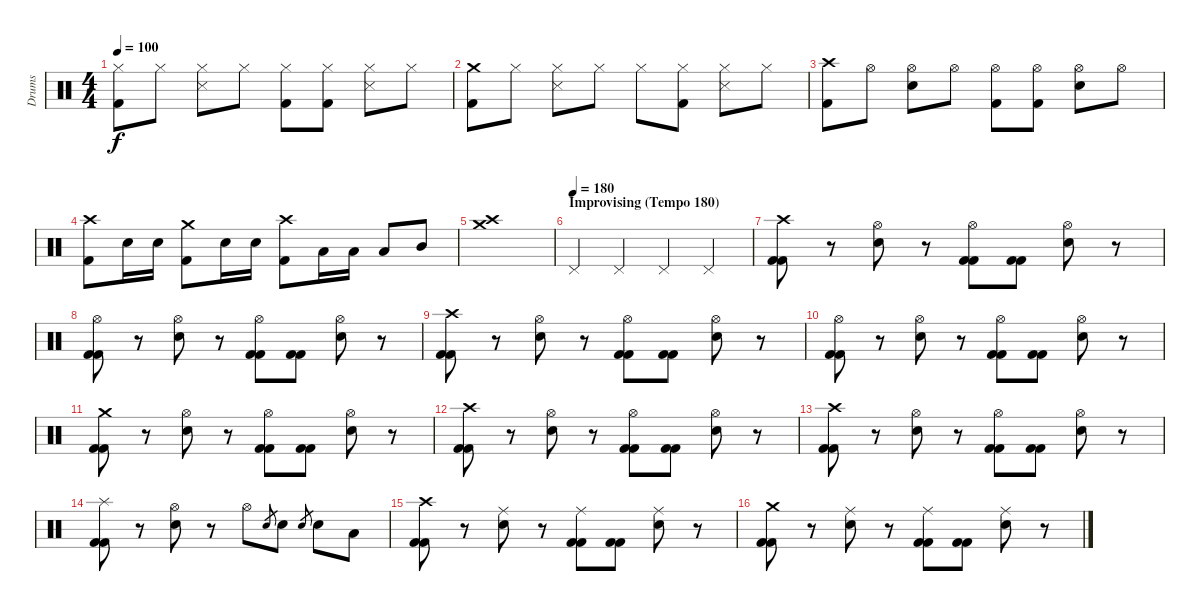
\track ("Drums" "Drums") {instrument percussion}
\staff {score}
\articulation defaults
\ts (4 4)
\tempo 100
\clef neutral
\ks c
("Hi-Hat (closed)" "Kick (hit) 2").8{dy f} "Hi-Hat (closed)".8 ("Hi-Hat (closed)" "Snare (side stick) 3").8 "Hi-Hat (closed)".8 ("Hi-Hat (closed)" "Kick (hit) 2").8 ("Hi-Hat (closed)" "Kick (hit) 2").8 ("Hi-Hat (closed)" "Snare (side stick) 3").8 "Hi-Hat (closed)".8 |
("Crash medium (hit)" "Kick (hit) 2").8 "Hi-Hat (closed)".8 ("Hi-Hat (closed)" "Snare (side stick) 3").8 "Hi-Hat (closed)".8 "Hi-Hat (closed)".8 ("Hi-Hat (closed)" "Kick (hit) 2").8 ("Hi-Hat (closed)" "Snare (side stick) 3").8 "Hi-Hat (closed)".8 |
("Crash high (hit)" "Kick (hit) 2").8 "Hi-Hat (open)".8 ("Hi-Hat (open)" "Snare (hit) 2").8 "Hi-Hat (open)".8 ("Hi-Hat (open)" "Kick (hit) 2").8 ("Hi-Hat (open)" "Kick (hit) 2").8 ("Hi-Hat (open)" "Snare (hit) 2").8 "Hi-Hat (open)".8 |
("Crash high (hit)" "Kick (hit) 2").8 "Snare (hit) 2".16 "Snare (hit) 2".16 ("Crash medium (hit)" "Kick (hit) 2").8 "Snare (hit) 2".16 "Snare (hit) 2".16 ("Crash high (hit)" "Kick (hit) 2").8 "Low Tom (hit)".16 "Low Tom (hit)".16 "Low Tom (hit)".8 "Mid Tom (hit)".8 |
("Crash high (hit)" "Crash medium (hit)").1 |
\section ("" "Improvising (Tempo 180)")
\tempo (180)
"Pedal Hi-Hat (hit)".4 "Pedal Hi-Hat (hit)".4 "Pedal Hi-Hat (hit)".4 "Pedal Hi-Hat (hit)".4 |
("Crash high (hit)" "Kick (hit) 2" "Kick (hit) 2").8 r.8 ("Hi-Hat (open)" "Snare (hit) 2").8 r.8 ("Hi-Hat (open)" "Kick (hit) 2" "Kick (hit) 2").8 ("Kick (hit) 2" "Kick (hit) 2").8 ("Hi-Hat (open)" "Snare (hit) 2").8 r.8 |
("Hi-Hat (open)" "Kick (hit) 2" "Kick (hit) 2").8 r.8 ("Hi-Hat (open)" "Snare (hit) 2").8 r.8 ("Hi-Hat (open)" "Kick (hit) 2" "Kick (hit) 2").8 ("Kick (hit) 2" "Kick (hit) 2").8 ("Hi-Hat (open)" "Snare (hit) 2").8 r.8 |
("Crash high (hit)" "Kick (hit) 2" "Kick (hit) 2").8 r.8 ("Hi-Hat (open)" "Snare (hit) 2").8 r.8 ("Hi-Hat (open)" "Kick (hit) 2" "Kick (hit) 2").8 ("Kick (hit) 2" "Kick (hit) 2").8 ("Hi-Hat (open)" "Snare (hit) 2").8 r.8 |
("Hi-Hat (open)" "Kick (hit) 2" "Kick (hit) 2").8 r.8 ("Hi-Hat (open)" "Snare (hit) 2").8 r.8 ("Hi-Hat (open)" "Kick (hit) 2" "Kick (hit) 2").8 ("Kick (hit) 2" "Kick (hit) 2").8 ("Hi-Hat (open)" "Snare (hit) 2").8 r.8 |
("Crash medium (hit)" "Kick (hit) 2" "Kick (hit) 2").8 r.8 ("Hi-Hat (open)" "Snare (hit) 2").8 r.8 ("Hi-Hat (open)" "Kick (hit) 2" "Kick (hit) 2").8 ("Kick (hit) 2" "Kick (hit) 2").8 ("Hi-Hat (open)" "Snare (hit) 2").8 r.8 |
("Crash high (hit)" "Kick (hit) 2" "Kick (hit) 2").8 r.8 ("Hi-Hat (open)" "Snare (hit) 2").8 r.8 ("Hi-Hat (open)" "Kick (hit) 2" "Kick (hit) 2").8 ("Kick (hit) 2" "Kick (hit) 2").8 ("Hi-Hat (open)" "Snare (hit) 2").8 r.8 |
("Crash high (hit)" "Kick (hit) 2" "Kick (hit) 2").8 r.8 ("Hi-Hat (open)" "Snare (hit) 2").8 r.8 ("Hi-Hat (open)" "Kick (hit) 2" "Kick (hit) 2").8 ("Kick (hit) 2" "Kick (hit) 2").8 ("Hi-Hat (open)" "Snare (hit) 2").8 r.8 |
("Splash (hit)" "Kick (hit) 2" "Kick (hit) 2").8 r.8 ("Hi-Hat (open)" "Snare (hit) 2").8 r.8 "Hi-Hat (open)".8 "Snare (hit) 2".8{gr} "Snare (hit) 2".8 "Snare (hit) 2".8{gr} "Snare (hit) 2".8 "Low Tom (hit)".8 |
("Crash high (hit)" "Kick (hit) 2" "Kick (hit) 2").8 r.8 ("Ride (middle)" "Snare (hit) 2").8 r.8 ("Ride (middle)" "Kick (hit) 2" "Kick (hit) 2").8 ("Kick (hit) 2" "Kick (hit) 2").8 ("Ride (middle)" "Snare (hit) 2").8 r.8 |
("Crash medium (hit)" "Kick (hit) 2" "Kick (hit) 2").8 r.8 ("Ride (middle)" "Snare (hit) 2").8 r.8 ("Ride (middle)" "Kick (hit) 2" "Kick (hit) 2").8 ("Kick (hit) 2" "Kick (hit) 2").8 ("Ride (middle)" "Snare (hit) 2").8 r.8
